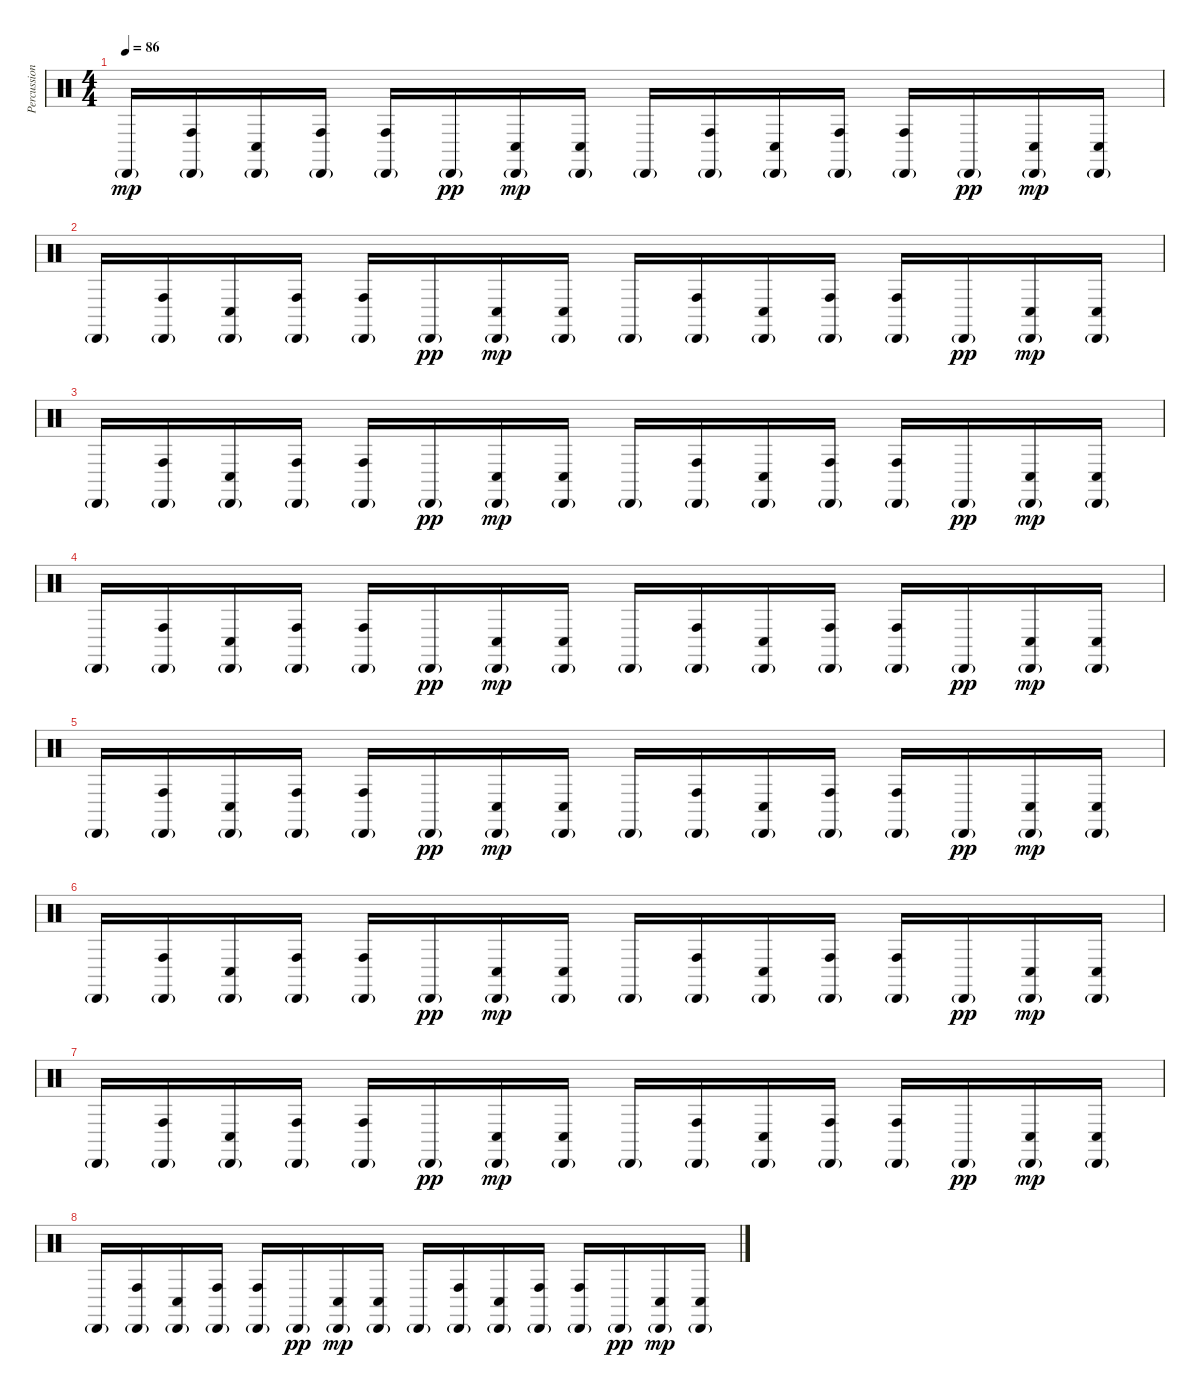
\track ("Percussion" "Percussion") {instrument percussion}
\staff {score}
\articulation defaults
\ts (4 4)
\tempo 86
\clef neutral
\ks c "Cabasa (hit)"{g}.16{dy mp}
("Cabasa (hit)"{g} "Conga high (hit)").16 ("Cabasa (hit)"{g} "Conga low (hit)").16 ("Cabasa (hit)"{g} "Conga high (hit)").16 ("Cabasa (hit)"{g} "Conga high (hit)").16 "Cabasa (hit)"{g}.16{dy pp} ("Cabasa (hit)"{g} "Conga low (hit)").16{dy mp} ("Cabasa (hit)"{g} "Conga low (hit)").16 "Cabasa (hit)"{g}.16 ("Cabasa (hit)"{g} "Conga high (hit)").16 ("Cabasa (hit)"{g} "Conga low (hit)").16 ("Cabasa (hit)"{g} "Conga high (hit)").16 ("Cabasa (hit)"{g} "Conga high (hit)").16 "Cabasa (hit)"{g}.16{dy pp} ("Cabasa (hit)"{g} "Conga low (hit)").16{dy mp} ("Cabasa (hit)"{g} "Conga low (hit)").16 |
"Cabasa (hit)"{g}.16 ("Cabasa (hit)"{g} "Conga high (hit)").16 ("Cabasa (hit)"{g} "Conga low (hit)").16 ("Cabasa (hit)"{g} "Conga high (hit)").16 ("Cabasa (hit)"{g} "Conga high (hit)").16 "Cabasa (hit)"{g}.16{dy pp} ("Cabasa (hit)"{g} "Conga low (hit)").16{dy mp} ("Cabasa (hit)"{g} "Conga low (hit)").16 "Cabasa (hit)"{g}.16 ("Cabasa (hit)"{g} "Conga high (hit)").16 ("Cabasa (hit)"{g} "Conga low (hit)").16 ("Cabasa (hit)"{g} "Conga high (hit)").16 ("Cabasa (hit)"{g} "Conga high (hit)").16 "Cabasa (hit)"{g}.16{dy pp} ("Cabasa (hit)"{g} "Conga low (hit)").16{dy mp} ("Cabasa (hit)"{g} "Conga low (hit)").16 |
"Cabasa (hit)"{g}.16 ("Cabasa (hit)"{g} "Conga high (hit)").16 ("Cabasa (hit)"{g} "Conga low (hit)").16 ("Cabasa (hit)"{g} "Conga high (hit)").16 ("Cabasa (hit)"{g} "Conga high (hit)").16 "Cabasa (hit)"{g}.16{dy pp} ("Cabasa (hit)"{g} "Conga low (hit)").16{dy mp} ("Cabasa (hit)"{g} "Conga low (hit)").16 "Cabasa (hit)"{g}.16 ("Cabasa (hit)"{g} "Conga high (hit)").16 ("Cabasa (hit)"{g} "Conga low (hit)").16 ("Cabasa (hit)"{g} "Conga high (hit)").16 ("Cabasa (hit)"{g} "Conga high (hit)").16 "Cabasa (hit)"{g}.16{dy pp} ("Cabasa (hit)"{g} "Conga low (hit)").16{dy mp} ("Cabasa (hit)"{g} "Conga low (hit)").16 |
"Cabasa (hit)"{g}.16 ("Cabasa (hit)"{g} "Conga high (hit)").16 ("Cabasa (hit)"{g} "Conga low (hit)").16 ("Cabasa (hit)"{g} "Conga high (hit)").16 ("Cabasa (hit)"{g} "Conga high (hit)").16 "Cabasa (hit)"{g}.16{dy pp} ("Cabasa (hit)"{g} "Conga low (hit)").16{dy mp} ("Cabasa (hit)"{g} "Conga low (hit)").16 "Cabasa (hit)"{g}.16 ("Cabasa (hit)"{g} "Conga high (hit)").16 ("Cabasa (hit)"{g} "Conga low (hit)").16 ("Cabasa (hit)"{g} "Conga high (hit)").16 ("Cabasa (hit)"{g} "Conga high (hit)").16 "Cabasa (hit)"{g}.16{dy pp} ("Cabasa (hit)"{g} "Conga low (hit)").16{dy mp} ("Cabasa (hit)"{g} "Conga low (hit)").16 |
"Cabasa (hit)"{g}.16 ("Cabasa (hit)"{g} "Conga high (hit)").16 ("Cabasa (hit)"{g} "Conga low (hit)").16 ("Cabasa (hit)"{g} "Conga high (hit)").16 ("Cabasa (hit)"{g} "Conga high (hit)").16 "Cabasa (hit)"{g}.16{dy pp} ("Cabasa (hit)"{g} "Conga low (hit)").16{dy mp} ("Cabasa (hit)"{g} "Conga low (hit)").16 "Cabasa (hit)"{g}.16 ("Cabasa (hit)"{g} "Conga high (hit)").16 ("Cabasa (hit)"{g} "Conga low (hit)").16 ("Cabasa (hit)"{g} "Conga high (hit)").16 ("Cabasa (hit)"{g} "Conga high (hit)").16 "Cabasa (hit)"{g}.16{dy pp} ("Cabasa (hit)"{g} "Conga low (hit)").16{dy mp} ("Cabasa (hit)"{g} "Conga low (hit)").16 |
"Cabasa (hit)"{g}.16 ("Cabasa (hit)"{g} "Conga high (hit)").16 ("Cabasa (hit)"{g} "Conga low (hit)").16 ("Cabasa (hit)"{g} "Conga high (hit)").16 ("Cabasa (hit)"{g} "Conga high (hit)").16 "Cabasa (hit)"{g}.16{dy pp} ("Cabasa (hit)"{g} "Conga low (hit)").16{dy mp} ("Cabasa (hit)"{g} "Conga low (hit)").16 "Cabasa (hit)"{g}.16 ("Cabasa (hit)"{g} "Conga high (hit)").16 ("Cabasa (hit)"{g} "Conga low (hit)").16 ("Cabasa (hit)"{g} "Conga high (hit)").16 ("Cabasa (hit)"{g} "Conga high (hit)").16 "Cabasa (hit)"{g}.16{dy pp} ("Cabasa (hit)"{g} "Conga low (hit)").16{dy mp} ("Cabasa (hit)"{g} "Conga low (hit)").16 |
"Cabasa (hit)"{g}.16 ("Cabasa (hit)"{g} "Conga high (hit)").16 ("Cabasa (hit)"{g} "Conga low (hit)").16 ("Cabasa (hit)"{g} "Conga high (hit)").16 ("Cabasa (hit)"{g} "Conga high (hit)").16 "Cabasa (hit)"{g}.16{dy pp} ("Cabasa (hit)"{g} "Conga low (hit)").16{dy mp} ("Cabasa (hit)"{g} "Conga low (hit)").16 "Cabasa (hit)"{g}.16 ("Cabasa (hit)"{g} "Conga high (hit)").16 ("Cabasa (hit)"{g} "Conga low (hit)").16 ("Cabasa (hit)"{g} "Conga high (hit)").16 ("Cabasa (hit)"{g} "Conga high (hit)").16 "Cabasa (hit)"{g}.16{dy pp} ("Cabasa (hit)"{g} "Conga low (hit)").16{dy mp} ("Cabasa (hit)"{g} "Conga low (hit)").16 |
"Cabasa (hit)"{g}.16 ("Cabasa (hit)"{g} "Conga high (hit)").16 ("Cabasa (hit)"{g} "Conga low (hit)").16 ("Cabasa (hit)"{g} "Conga high (hit)").16 ("Cabasa (hit)"{g} "Conga high (hit)").16 "Cabasa (hit)"{g}.16{dy pp} ("Cabasa (hit)"{g} "Conga low (hit)").16{dy mp} ("Cabasa (hit)"{g} "Conga low (hit)").16 "Cabasa (hit)"{g}.16 ("Cabasa (hit)"{g} "Conga high (hit)").16 ("Cabasa (hit)"{g} "Conga low (hit)").16 ("Cabasa (hit)"{g} "Conga high (hit)").16 ("Cabasa (hit)"{g} "Conga high (hit)").16 "Cabasa (hit)"{g}.16{dy pp} ("Cabasa (hit)"{g} "Conga low (hit)").16{dy mp} ("Cabasa (hit)"{g} "Conga low (hit)").16
